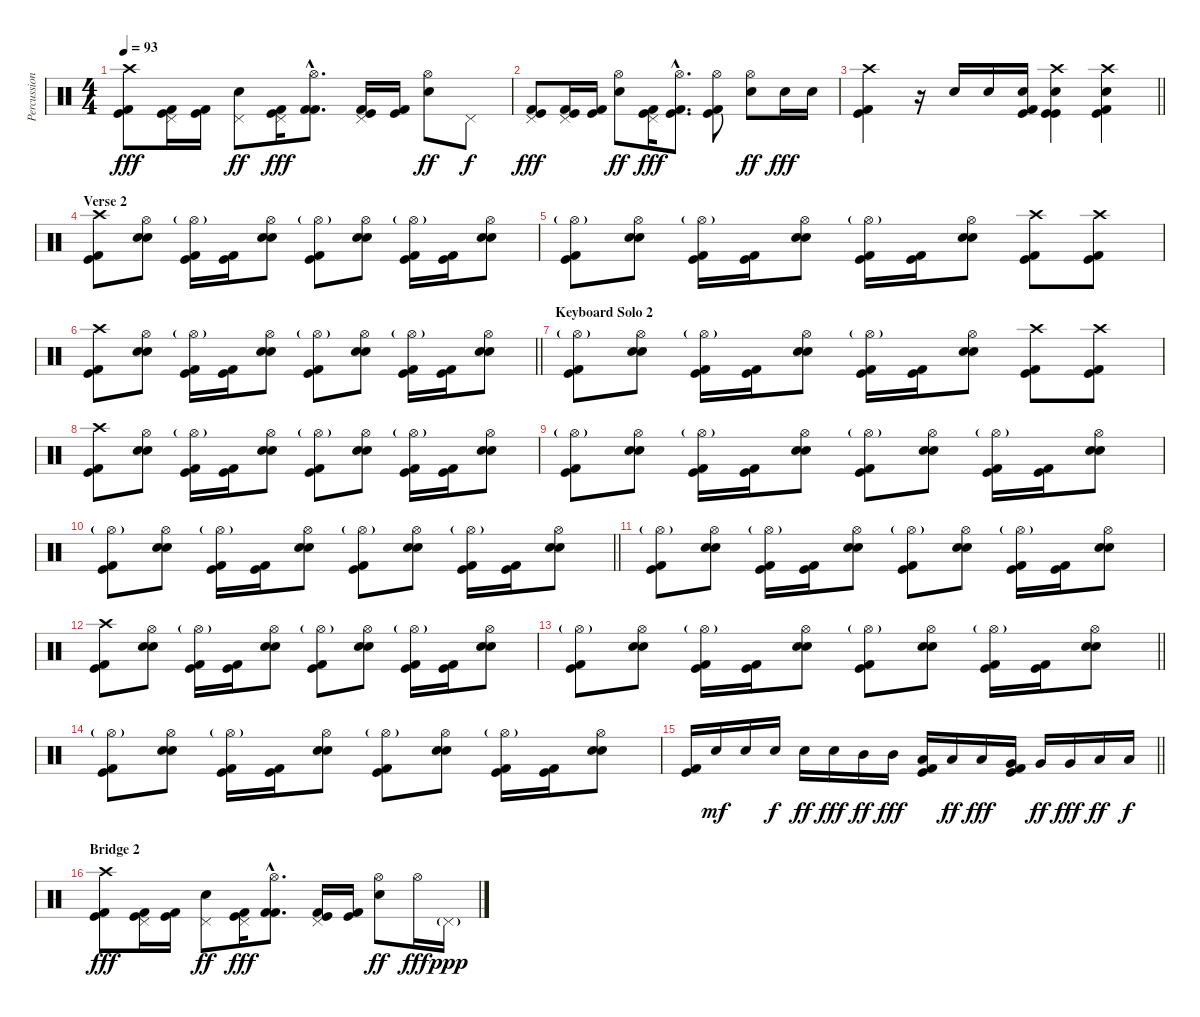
\track ("Percussion" "Percussion") {instrument percussion}
\staff {score}
\articulation defaults
\ts (4 4)
\tempo 93
\clef neutral
\ks c
("Crash high (hit)" "Kick (hit)" "Kick (hit) 2").8{dy fff} ("Pedal Hi-Hat (hit)" "Kick (hit)" "Kick (hit) 2").16 ("Kick (hit)" "Kick (hit) 2").16 ("Pedal Hi-Hat (hit)" "Snare (hit) 2").8{dy ff} ("Pedal Hi-Hat (hit)" "Kick (hit)" "Kick (hit) 2").16{dy fff} ("Hi-Hat (open)"{hac} "Kick (hit) 2"{hac} "Kick (hit) 2"{hac}).8{d} ("Pedal Hi-Hat (hit)" "Kick (hit)" "Kick (hit) 2").16 ("Kick (hit)" "Kick (hit) 2").16 ("Hi-Hat (open)" "Snare (hit) 2").8{dy ff} "Pedal Hi-Hat (hit)".8{dy f} |
("Pedal Hi-Hat (hit)" "Kick (hit)" "Kick (hit) 2").8{dy fff} ("Pedal Hi-Hat (hit)" "Kick (hit)" "Kick (hit) 2").16 ("Kick (hit)" "Kick (hit) 2").16 ("Hi-Hat (open)" "Snare (hit) 2").8{dy ff} ("Pedal Hi-Hat (hit)" "Kick (hit)" "Kick (hit) 2").16{dy fff} ("Hi-Hat (open)"{hac} "Kick (hit)"{hac} "Kick (hit) 2"{hac}).8{d} ("Hi-Hat (open)" "Kick (hit)" "Kick (hit) 2").8 ("Hi-Hat (open)" "Snare (hit) 2").8{dy ff} "Snare (hit) 2".16{dy fff} "Snare (hit) 2".16 |
\barLineRight lightlight
("Crash high (hit)" "Kick (hit)" "Kick (hit) 2").4 r.16 "Snare (hit) 2".16 "Snare (hit) 2".16 ("Snare (hit) 2" "Kick (hit)" "Kick (hit) 2").16 ("Crash high (hit)" "Snare (hit) 2" "Kick (hit)" "Kick (hit)").4 ("Crash high (hit)" "Snare (hit) 2" "Kick (hit)" "Kick (hit) 2").4 |
\section ("" "Verse 2")
("Crash high (hit)" "Kick (hit)" "Kick (hit) 2").8 ("Hi-Hat (open)" "Electric Snare (hit)" "Snare (hit) 2").8 ("Hi-Hat (open)"{g} "Kick (hit)" "Kick (hit) 2").16 ("Kick (hit)" "Kick (hit) 2").16 ("Hi-Hat (open)" "Electric Snare (hit)" "Snare (hit) 2").8 ("Hi-Hat (open)"{g} "Kick (hit)" "Kick (hit) 2").8 ("Hi-Hat (open)" "Electric Snare (hit)" "Snare (hit) 2").8 ("Hi-Hat (open)"{g} "Kick (hit)" "Kick (hit) 2").16 ("Kick (hit)" "Kick (hit) 2").16 ("Hi-Hat (open)" "Electric Snare (hit)" "Snare (hit) 2").8 |
("Hi-Hat (open)"{g} "Kick (hit)" "Kick (hit) 2").8 ("Hi-Hat (open)" "Electric Snare (hit)" "Snare (hit) 2").8 ("Hi-Hat (open)"{g} "Kick (hit)" "Kick (hit) 2").16 ("Kick (hit)" "Kick (hit) 2").16 ("Hi-Hat (open)" "Electric Snare (hit)" "Snare (hit) 2").8 ("Hi-Hat (open)"{g} "Kick (hit)" "Kick (hit) 2").16 ("Kick (hit)" "Kick (hit) 2").16 ("Hi-Hat (open)" "Electric Snare (hit)" "Snare (hit) 2").8 ("Crash high (hit)" "Kick (hit)" "Kick (hit) 2").8 ("Crash high (hit)" "Kick (hit)" "Kick (hit) 2").8 |
\barLineRight lightlight
("Crash high (hit)" "Kick (hit)" "Kick (hit) 2").8 ("Hi-Hat (open)" "Electric Snare (hit)" "Snare (hit) 2").8 ("Hi-Hat (open)"{g} "Kick (hit)" "Kick (hit) 2").16 ("Kick (hit)" "Kick (hit) 2").16 ("Hi-Hat (open)" "Electric Snare (hit)" "Snare (hit) 2").8 ("Hi-Hat (open)"{g} "Kick (hit)" "Kick (hit) 2").8 ("Hi-Hat (open)" "Electric Snare (hit)" "Snare (hit) 2").8 ("Hi-Hat (open)"{g} "Kick (hit)" "Kick (hit) 2").16 ("Kick (hit)" "Kick (hit) 2").16 ("Hi-Hat (open)" "Electric Snare (hit)" "Snare (hit) 2").8 |
\section ("" "Keyboard Solo 2")
("Hi-Hat (open)"{g} "Kick (hit)" "Kick (hit) 2").8 ("Hi-Hat (open)" "Electric Snare (hit)" "Snare (hit) 2").8 ("Hi-Hat (open)"{g} "Kick (hit)" "Kick (hit) 2").16 ("Kick (hit)" "Kick (hit) 2").16 ("Hi-Hat (open)" "Electric Snare (hit)" "Snare (hit) 2").8 ("Hi-Hat (open)"{g} "Kick (hit)" "Kick (hit) 2").16 ("Kick (hit)" "Kick (hit) 2").16 ("Hi-Hat (open)" "Electric Snare (hit)" "Snare (hit) 2").8 ("Crash high (hit)" "Kick (hit)" "Kick (hit) 2").8 ("Crash high (hit)" "Kick (hit)" "Kick (hit) 2").8 |
("Crash high (hit)" "Kick (hit)" "Kick (hit) 2").8 ("Hi-Hat (open)" "Electric Snare (hit)" "Snare (hit) 2").8 ("Hi-Hat (open)"{g} "Kick (hit)" "Kick (hit) 2").16 ("Kick (hit)" "Kick (hit) 2").16 ("Hi-Hat (open)" "Electric Snare (hit)" "Snare (hit) 2").8 ("Hi-Hat (open)"{g} "Kick (hit)" "Kick (hit) 2").8 ("Hi-Hat (open)" "Electric Snare (hit)" "Snare (hit) 2").8 ("Hi-Hat (open)"{g} "Kick (hit)" "Kick (hit) 2").16 ("Kick (hit)" "Kick (hit) 2").16 ("Hi-Hat (open)" "Electric Snare (hit)" "Snare (hit) 2").8 |
("Hi-Hat (open)"{g} "Kick (hit)" "Kick (hit) 2").8 ("Hi-Hat (open)" "Electric Snare (hit)" "Snare (hit) 2").8 ("Hi-Hat (open)"{g} "Kick (hit)" "Kick (hit) 2").16 ("Kick (hit)" "Kick (hit) 2").16 ("Hi-Hat (open)" "Electric Snare (hit)" "Snare (hit) 2").8 ("Hi-Hat (open)"{g} "Kick (hit)" "Kick (hit) 2").8 ("Hi-Hat (open)" "Electric Snare (hit)" "Snare (hit) 2").8 ("Hi-Hat (open)"{g} "Kick (hit)" "Kick (hit) 2").16 ("Kick (hit)" "Kick (hit) 2").16 ("Hi-Hat (open)" "Electric Snare (hit)" "Snare (hit) 2").8 |
\barLineRight lightlight
("Hi-Hat (open)"{g} "Kick (hit)" "Kick (hit) 2").8 ("Hi-Hat (open)" "Electric Snare (hit)" "Snare (hit) 2").8 ("Hi-Hat (open)"{g} "Kick (hit)" "Kick (hit) 2").16 ("Kick (hit)" "Kick (hit) 2").16 ("Hi-Hat (open)" "Electric Snare (hit)" "Snare (hit) 2").8 ("Hi-Hat (open)"{g} "Kick (hit)" "Kick (hit) 2").8 ("Hi-Hat (open)" "Electric Snare (hit)" "Snare (hit) 2").8 ("Hi-Hat (open)"{g} "Kick (hit)" "Kick (hit) 2").16 ("Kick (hit)" "Kick (hit) 2").16 ("Hi-Hat (open)" "Electric Snare (hit)" "Snare (hit) 2").8 |
("Hi-Hat (open)"{g} "Kick (hit)" "Kick (hit) 2").8 ("Hi-Hat (open)" "Electric Snare (hit)" "Snare (hit) 2").8 ("Hi-Hat (open)"{g} "Kick (hit)" "Kick (hit) 2").16 ("Kick (hit)" "Kick (hit) 2").16 ("Hi-Hat (open)" "Electric Snare (hit)" "Snare (hit) 2").8 ("Hi-Hat (open)"{g} "Kick (hit)" "Kick (hit) 2").8 ("Hi-Hat (open)" "Electric Snare (hit)" "Snare (hit) 2").8 ("Hi-Hat (open)"{g} "Kick (hit)" "Kick (hit) 2").16 ("Kick (hit)" "Kick (hit) 2").16 ("Hi-Hat (open)" "Electric Snare (hit)" "Snare (hit) 2").8 |
("Crash high (hit)" "Kick (hit)" "Kick (hit) 2").8 ("Hi-Hat (open)" "Electric Snare (hit)" "Snare (hit) 2").8 ("Hi-Hat (open)"{g} "Kick (hit)" "Kick (hit) 2").16 ("Kick (hit)" "Kick (hit) 2").16 ("Hi-Hat (open)" "Electric Snare (hit)" "Snare (hit) 2").8 ("Hi-Hat (open)"{g} "Kick (hit)" "Kick (hit) 2").8 ("Hi-Hat (open)" "Electric Snare (hit)" "Snare (hit) 2").8 ("Hi-Hat (open)"{g} "Kick (hit)" "Kick (hit) 2").16 ("Kick (hit)" "Kick (hit) 2").16 ("Hi-Hat (open)" "Electric Snare (hit)" "Snare (hit) 2").8 |
\barLineRight lightlight
("Hi-Hat (open)"{g} "Kick (hit)" "Kick (hit) 2").8 ("Hi-Hat (open)" "Electric Snare (hit)" "Snare (hit) 2").8 ("Hi-Hat (open)"{g} "Kick (hit)" "Kick (hit) 2").16 ("Kick (hit)" "Kick (hit) 2").16 ("Hi-Hat (open)" "Electric Snare (hit)" "Snare (hit) 2").8 ("Hi-Hat (open)"{g} "Kick (hit)" "Kick (hit) 2").8 ("Hi-Hat (open)" "Electric Snare (hit)" "Snare (hit) 2").8 ("Hi-Hat (open)"{g} "Kick (hit)" "Kick (hit) 2").16 ("Kick (hit)" "Kick (hit) 2").16 ("Hi-Hat (open)" "Electric Snare (hit)" "Snare (hit) 2").8 |
("Hi-Hat (open)"{g} "Kick (hit)" "Kick (hit) 2").8 ("Hi-Hat (open)" "Electric Snare (hit)" "Snare (hit) 2").8 ("Hi-Hat (open)"{g} "Kick (hit)" "Kick (hit) 2").16 ("Kick (hit)" "Kick (hit) 2").16 ("Hi-Hat (open)" "Electric Snare (hit)" "Snare (hit) 2").8 ("Hi-Hat (open)"{g} "Kick (hit)" "Kick (hit) 2").8 ("Hi-Hat (open)" "Electric Snare (hit)" "Snare (hit) 2").8 ("Hi-Hat (open)"{g} "Kick (hit)" "Kick (hit) 2").16 ("Kick (hit)" "Kick (hit) 2").16 ("Hi-Hat (open)" "Electric Snare (hit)" "Snare (hit) 2").8 |
\barLineRight lightlight
("Kick (hit)" "Kick (hit) 2").16 "Snare (hit) 2".16{dy mf} "Snare (hit) 2".16 "Snare (hit) 2".16{dy f} "Snare (hit) 2".16{dy ff} "Snare (hit) 2".16{dy fff} "Mid Tom (hit)".16{dy ff balance 14} "Mid Tom (hit)".16{dy fff} ("Low Tom (hit)" "Kick (hit)" "Kick (hit) 2").16{balance 12} "Low Tom (hit)".16{dy ff} "Low Tom (hit)".16{dy fff} ("Very Low Tom (hit)" "Kick (hit)" "Kick (hit) 2").16{balance 10} "Very Low Tom (hit)".16{dy ff} "Very Low Tom (hit)".16{dy fff} "Low Floor Tom (hit)".16{dy ff balance 6} "Low Floor Tom (hit)".16{dy f} |
\section ("" "Bridge 2")
("Crash high (hit)" "Kick (hit)" "Kick (hit) 2").8{dy fff balance 8} ("Pedal Hi-Hat (hit)" "Kick (hit)" "Kick (hit) 2").16 ("Kick (hit)" "Kick (hit) 2").16 ("Pedal Hi-Hat (hit)" "Snare (hit) 2").8{dy ff} ("Pedal Hi-Hat (hit)" "Kick (hit)" "Kick (hit) 2").16{dy fff} ("Hi-Hat (open)"{hac} "Kick (hit) 2"{hac} "Kick (hit) 2"{hac}).8{d} ("Pedal Hi-Hat (hit)" "Kick (hit)" "Kick (hit) 2").16 ("Kick (hit)" "Kick (hit) 2").16 ("Hi-Hat (open)" "Snare (hit) 2").8{dy ff} "Hi-Hat (open)".16{dy fff} "Pedal Hi-Hat (hit)"{g}.16{dy ppp}
